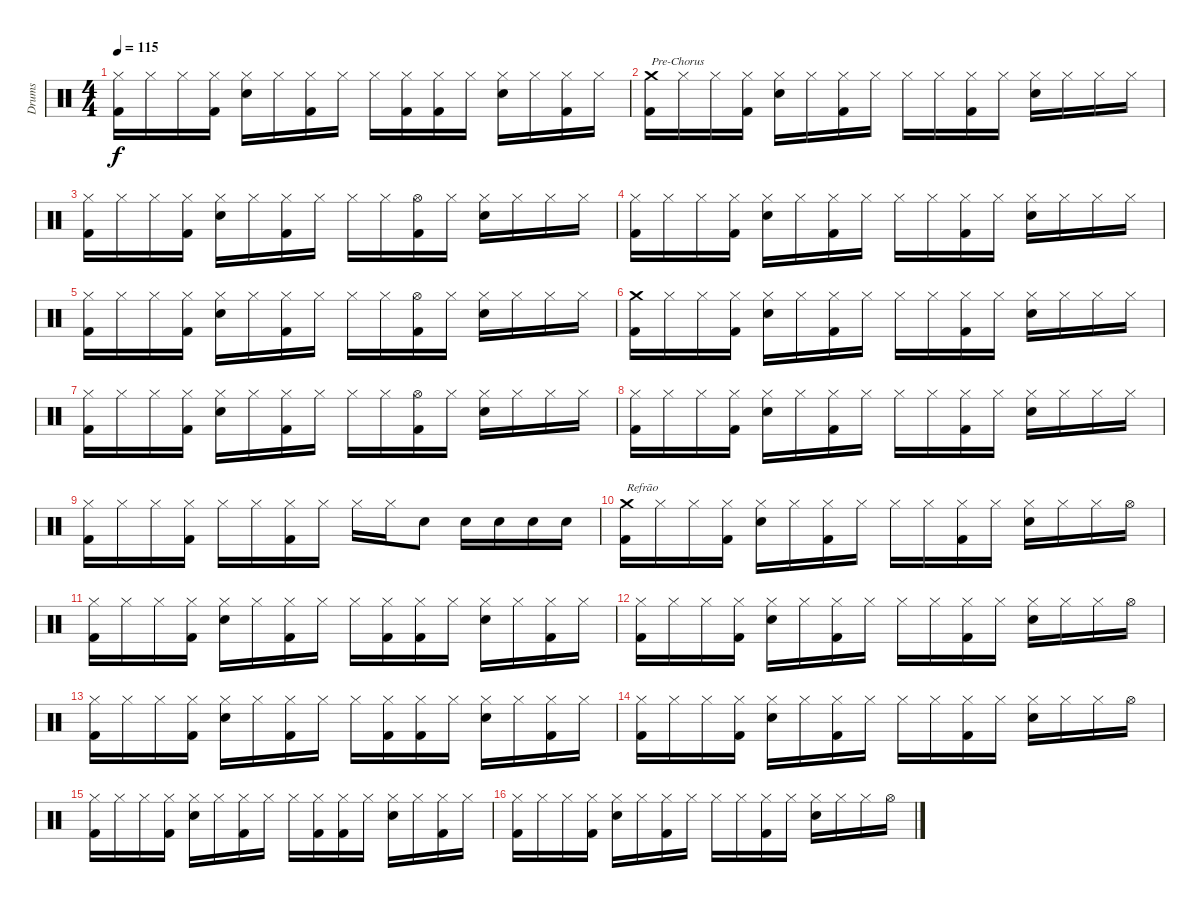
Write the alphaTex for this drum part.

\track ("Drums" "Drums") {instrument percussion}
\staff {score}
\articulation defaults
\ts (4 4)
\tempo 115
\clef neutral
\ks c
("Hi-Hat (closed)" "Kick (hit) 2").16{dy f} "Hi-Hat (closed)".16 "Hi-Hat (closed)".16 ("Hi-Hat (closed)" "Kick (hit) 2").16 ("Hi-Hat (closed)" "Electric Snare (hit)").16 "Hi-Hat (closed)".16 ("Hi-Hat (closed)" "Kick (hit) 2").16 "Hi-Hat (closed)".16 "Hi-Hat (closed)".16 ("Hi-Hat (closed)" "Kick (hit) 2").16 ("Hi-Hat (closed)" "Kick (hit) 2").16 "Hi-Hat (closed)".16 ("Hi-Hat (closed)" "Electric Snare (hit)").16 "Hi-Hat (closed)".16 ("Hi-Hat (closed)" "Kick (hit) 2").16 "Hi-Hat (closed)".16 |
("Crash medium (hit)" "Kick (hit) 2").16{txt "Pre-Chorus"} "Hi-Hat (closed)".16 "Hi-Hat (closed)".16 ("Hi-Hat (closed)" "Kick (hit) 2").16 ("Hi-Hat (closed)" "Electric Snare (hit)").16 "Hi-Hat (closed)".16 ("Hi-Hat (closed)" "Kick (hit) 2").16 "Hi-Hat (closed)".16 "Hi-Hat (closed)".16 "Hi-Hat (closed)".16 ("Hi-Hat (closed)" "Kick (hit) 2").16 "Hi-Hat (closed)".16 ("Hi-Hat (closed)" "Electric Snare (hit)").16 "Hi-Hat (closed)".16 "Hi-Hat (closed)".16 "Hi-Hat (closed)".16 |
("Hi-Hat (closed)" "Kick (hit) 2").16 "Hi-Hat (closed)".16 "Hi-Hat (closed)".16 ("Hi-Hat (closed)" "Kick (hit) 2").16 ("Hi-Hat (closed)" "Electric Snare (hit)").16 "Hi-Hat (closed)".16 ("Hi-Hat (closed)" "Kick (hit) 2").16 "Hi-Hat (closed)".16 "Hi-Hat (closed)".16 "Hi-Hat (closed)".16 ("Hi-Hat (open)" "Kick (hit) 2").16 "Hi-Hat (closed)".16 ("Hi-Hat (closed)" "Electric Snare (hit)").16 "Hi-Hat (closed)".16 "Hi-Hat (closed)".16 "Hi-Hat (closed)".16 |
("Hi-Hat (closed)" "Kick (hit) 2").16 "Hi-Hat (closed)".16 "Hi-Hat (closed)".16 ("Hi-Hat (closed)" "Kick (hit) 2").16 ("Hi-Hat (closed)" "Electric Snare (hit)").16 "Hi-Hat (closed)".16 ("Hi-Hat (closed)" "Kick (hit) 2").16 "Hi-Hat (closed)".16 "Hi-Hat (closed)".16 "Hi-Hat (closed)".16 ("Hi-Hat (closed)" "Kick (hit) 2").16 "Hi-Hat (closed)".16 ("Hi-Hat (closed)" "Electric Snare (hit)").16 "Hi-Hat (closed)".16 "Hi-Hat (closed)".16 "Hi-Hat (closed)".16 |
("Hi-Hat (closed)" "Kick (hit) 2").16 "Hi-Hat (closed)".16 "Hi-Hat (closed)".16 ("Hi-Hat (closed)" "Kick (hit) 2").16 ("Hi-Hat (closed)" "Electric Snare (hit)").16 "Hi-Hat (closed)".16 ("Hi-Hat (closed)" "Kick (hit) 2").16 "Hi-Hat (closed)".16 "Hi-Hat (closed)".16 "Hi-Hat (closed)".16 ("Hi-Hat (open)" "Kick (hit) 2").16 "Hi-Hat (closed)".16 ("Hi-Hat (closed)" "Electric Snare (hit)").16 "Hi-Hat (closed)".16 "Hi-Hat (closed)".16 "Hi-Hat (closed)".16 |
("Crash medium (hit)" "Kick (hit) 2").16 "Hi-Hat (closed)".16 "Hi-Hat (closed)".16 ("Hi-Hat (closed)" "Kick (hit) 2").16 ("Hi-Hat (closed)" "Electric Snare (hit)").16 "Hi-Hat (closed)".16 ("Hi-Hat (closed)" "Kick (hit) 2").16 "Hi-Hat (closed)".16 "Hi-Hat (closed)".16 "Hi-Hat (closed)".16 ("Hi-Hat (closed)" "Kick (hit) 2").16 "Hi-Hat (closed)".16 ("Hi-Hat (closed)" "Electric Snare (hit)").16 "Hi-Hat (closed)".16 "Hi-Hat (closed)".16 "Hi-Hat (closed)".16 |
("Hi-Hat (closed)" "Kick (hit) 2").16 "Hi-Hat (closed)".16 "Hi-Hat (closed)".16 ("Hi-Hat (closed)" "Kick (hit) 2").16 ("Hi-Hat (closed)" "Electric Snare (hit)").16 "Hi-Hat (closed)".16 ("Hi-Hat (closed)" "Kick (hit) 2").16 "Hi-Hat (closed)".16 "Hi-Hat (closed)".16 "Hi-Hat (closed)".16 ("Hi-Hat (open)" "Kick (hit) 2").16 "Hi-Hat (closed)".16 ("Hi-Hat (closed)" "Electric Snare (hit)").16 "Hi-Hat (closed)".16 "Hi-Hat (closed)".16 "Hi-Hat (closed)".16 |
("Hi-Hat (closed)" "Kick (hit) 2").16 "Hi-Hat (closed)".16 "Hi-Hat (closed)".16 ("Hi-Hat (closed)" "Kick (hit) 2").16 ("Hi-Hat (closed)" "Electric Snare (hit)").16 "Hi-Hat (closed)".16 ("Hi-Hat (closed)" "Kick (hit) 2").16 "Hi-Hat (closed)".16 "Hi-Hat (closed)".16 "Hi-Hat (closed)".16 ("Hi-Hat (closed)" "Kick (hit) 2").16 "Hi-Hat (closed)".16 ("Hi-Hat (closed)" "Electric Snare (hit)").16 "Hi-Hat (closed)".16 "Hi-Hat (closed)".16 "Hi-Hat (closed)".16 |
("Hi-Hat (closed)" "Kick (hit) 2").16 "Hi-Hat (closed)".16 "Hi-Hat (closed)".16 ("Hi-Hat (closed)" "Kick (hit) 2").16 "Hi-Hat (closed)".16 "Hi-Hat (closed)".16 ("Hi-Hat (closed)" "Kick (hit) 2").16 "Hi-Hat (closed)".16 "Hi-Hat (closed)".16 "Hi-Hat (closed)".16 "Electric Snare (hit)".8 "Electric Snare (hit)".16 "Electric Snare (hit)".16 "Electric Snare (hit)".16 "Electric Snare (hit)".16 |
("Crash medium (hit)" "Kick (hit) 2").16{txt "Refrão"} "Hi-Hat (closed)".16 "Hi-Hat (closed)".16 ("Hi-Hat (closed)" "Kick (hit) 2").16 ("Hi-Hat (closed)" "Electric Snare (hit)").16 "Hi-Hat (closed)".16 ("Hi-Hat (closed)" "Kick (hit) 2").16 "Hi-Hat (closed)".16 "Hi-Hat (closed)".16 "Hi-Hat (closed)".16 ("Hi-Hat (closed)" "Kick (hit) 2").16 "Hi-Hat (closed)".16 ("Hi-Hat (closed)" "Electric Snare (hit)").16 "Hi-Hat (closed)".16 "Hi-Hat (closed)".16 "Hi-Hat (open)".16 |
("Hi-Hat (closed)" "Kick (hit) 2").16 "Hi-Hat (closed)".16 "Hi-Hat (closed)".16 ("Hi-Hat (closed)" "Kick (hit) 2").16 ("Hi-Hat (closed)" "Electric Snare (hit)").16 "Hi-Hat (closed)".16 ("Hi-Hat (closed)" "Kick (hit) 2").16 "Hi-Hat (closed)".16 "Hi-Hat (closed)".16 ("Hi-Hat (closed)" "Kick (hit) 2").16 ("Hi-Hat (closed)" "Kick (hit) 2").16 "Hi-Hat (closed)".16 ("Hi-Hat (closed)" "Electric Snare (hit)").16 "Hi-Hat (closed)".16 ("Hi-Hat (closed)" "Kick (hit) 2").16 "Hi-Hat (closed)".16 |
("Hi-Hat (closed)" "Kick (hit) 2").16 "Hi-Hat (closed)".16 "Hi-Hat (closed)".16 ("Hi-Hat (closed)" "Kick (hit) 2").16 ("Hi-Hat (closed)" "Electric Snare (hit)").16 "Hi-Hat (closed)".16 ("Hi-Hat (closed)" "Kick (hit) 2").16 "Hi-Hat (closed)".16 "Hi-Hat (closed)".16 "Hi-Hat (closed)".16 ("Hi-Hat (closed)" "Kick (hit) 2").16 "Hi-Hat (closed)".16 ("Hi-Hat (closed)" "Electric Snare (hit)").16 "Hi-Hat (closed)".16 "Hi-Hat (closed)".16 "Hi-Hat (open)".16 |
("Hi-Hat (closed)" "Kick (hit) 2").16 "Hi-Hat (closed)".16 "Hi-Hat (closed)".16 ("Hi-Hat (closed)" "Kick (hit) 2").16 ("Hi-Hat (closed)" "Electric Snare (hit)").16 "Hi-Hat (closed)".16 ("Hi-Hat (closed)" "Kick (hit) 2").16 "Hi-Hat (closed)".16 "Hi-Hat (closed)".16 ("Hi-Hat (closed)" "Kick (hit) 2").16 ("Hi-Hat (closed)" "Kick (hit) 2").16 "Hi-Hat (closed)".16 ("Hi-Hat (closed)" "Electric Snare (hit)").16 "Hi-Hat (closed)".16 ("Hi-Hat (closed)" "Kick (hit) 2").16 "Hi-Hat (closed)".16 |
("Hi-Hat (closed)" "Kick (hit) 2").16 "Hi-Hat (closed)".16 "Hi-Hat (closed)".16 ("Hi-Hat (closed)" "Kick (hit) 2").16 ("Hi-Hat (closed)" "Electric Snare (hit)").16 "Hi-Hat (closed)".16 ("Hi-Hat (closed)" "Kick (hit) 2").16 "Hi-Hat (closed)".16 "Hi-Hat (closed)".16 "Hi-Hat (closed)".16 ("Hi-Hat (closed)" "Kick (hit) 2").16 "Hi-Hat (closed)".16 ("Hi-Hat (closed)" "Electric Snare (hit)").16 "Hi-Hat (closed)".16 "Hi-Hat (closed)".16 "Hi-Hat (open)".16 |
("Hi-Hat (closed)" "Kick (hit) 2").16 "Hi-Hat (closed)".16 "Hi-Hat (closed)".16 ("Hi-Hat (closed)" "Kick (hit) 2").16 ("Hi-Hat (closed)" "Electric Snare (hit)").16 "Hi-Hat (closed)".16 ("Hi-Hat (closed)" "Kick (hit) 2").16 "Hi-Hat (closed)".16 "Hi-Hat (closed)".16 ("Hi-Hat (closed)" "Kick (hit) 2").16 ("Hi-Hat (closed)" "Kick (hit) 2").16 "Hi-Hat (closed)".16 ("Hi-Hat (closed)" "Electric Snare (hit)").16 "Hi-Hat (closed)".16 ("Hi-Hat (closed)" "Kick (hit) 2").16 "Hi-Hat (closed)".16 |
("Hi-Hat (closed)" "Kick (hit) 2").16 "Hi-Hat (closed)".16 "Hi-Hat (closed)".16 ("Hi-Hat (closed)" "Kick (hit) 2").16 ("Hi-Hat (closed)" "Electric Snare (hit)").16 "Hi-Hat (closed)".16 ("Hi-Hat (closed)" "Kick (hit) 2").16 "Hi-Hat (closed)".16 "Hi-Hat (closed)".16 "Hi-Hat (closed)".16 ("Hi-Hat (closed)" "Kick (hit) 2").16 "Hi-Hat (closed)".16 ("Hi-Hat (closed)" "Electric Snare (hit)").16 "Hi-Hat (closed)".16 "Hi-Hat (closed)".16 "Hi-Hat (open)".16
